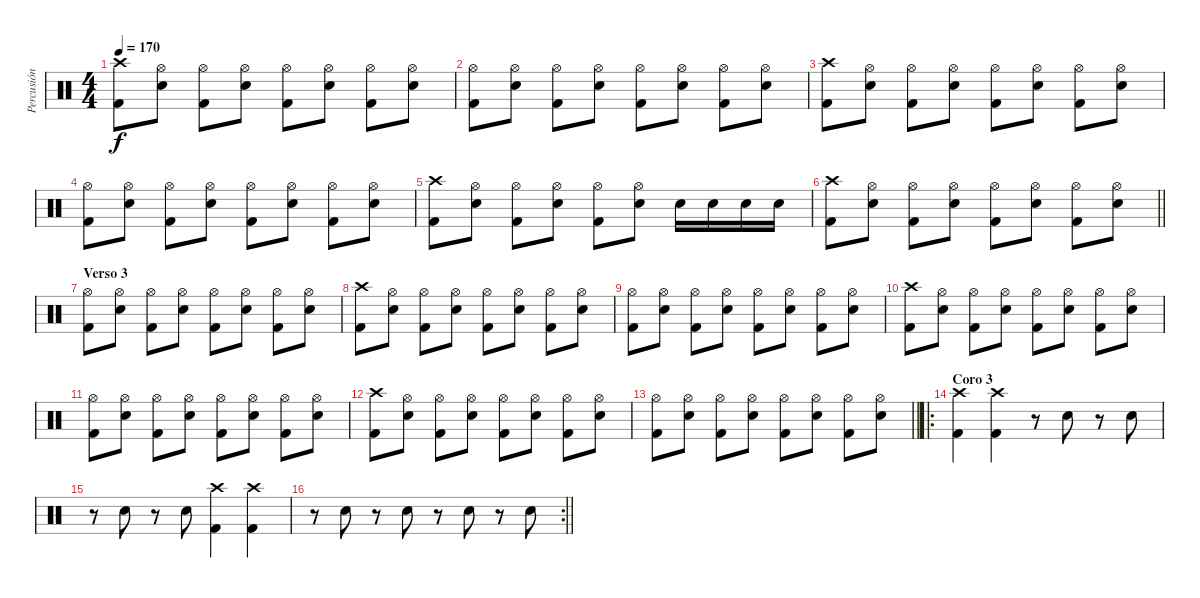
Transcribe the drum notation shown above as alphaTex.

\track ("Percusión" "Percusión") {instrument percussion}
\staff {score}
\articulation defaults
\ts (4 4)
\tempo 170
\clef neutral
\ks c
("Crash high (hit)" "Kick (hit) 2").8{dy f} ("Hi-Hat (open)" "Electric Snare (hit)").8 ("Hi-Hat (open)" "Kick (hit) 2").8 ("Hi-Hat (open)" "Electric Snare (hit)").8 ("Hi-Hat (open)" "Kick (hit) 2").8 ("Hi-Hat (open)" "Electric Snare (hit)").8 ("Hi-Hat (open)" "Kick (hit) 2").8 ("Hi-Hat (open)" "Electric Snare (hit)").8 |
("Hi-Hat (open)" "Kick (hit) 2").8 ("Hi-Hat (open)" "Electric Snare (hit)").8 ("Hi-Hat (open)" "Kick (hit) 2").8 ("Hi-Hat (open)" "Electric Snare (hit)").8 ("Hi-Hat (open)" "Kick (hit) 2").8 ("Hi-Hat (open)" "Electric Snare (hit)").8 ("Hi-Hat (open)" "Kick (hit) 2").8 ("Hi-Hat (open)" "Electric Snare (hit)").8 |
("Crash high (hit)" "Kick (hit) 2").8 ("Hi-Hat (open)" "Electric Snare (hit)").8 ("Hi-Hat (open)" "Kick (hit) 2").8 ("Hi-Hat (open)" "Electric Snare (hit)").8 ("Hi-Hat (open)" "Kick (hit) 2").8 ("Hi-Hat (open)" "Electric Snare (hit)").8 ("Hi-Hat (open)" "Kick (hit) 2").8 ("Hi-Hat (open)" "Electric Snare (hit)").8 |
("Hi-Hat (open)" "Kick (hit) 2").8 ("Hi-Hat (open)" "Electric Snare (hit)").8 ("Hi-Hat (open)" "Kick (hit) 2").8 ("Hi-Hat (open)" "Electric Snare (hit)").8 ("Hi-Hat (open)" "Kick (hit) 2").8 ("Hi-Hat (open)" "Electric Snare (hit)").8 ("Hi-Hat (open)" "Kick (hit) 2").8 ("Hi-Hat (open)" "Electric Snare (hit)").8 |
("Crash high (hit)" "Kick (hit) 2").8 ("Hi-Hat (open)" "Electric Snare (hit)").8 ("Hi-Hat (open)" "Kick (hit) 2").8 ("Hi-Hat (open)" "Electric Snare (hit)").8 ("Hi-Hat (open)" "Kick (hit) 2").8 ("Hi-Hat (open)" "Electric Snare (hit)").8 "Electric Snare (hit)".16 "Electric Snare (hit)".16 "Electric Snare (hit)".16 "Electric Snare (hit)".16 |
\barLineRight lightlight
("Crash high (hit)" "Kick (hit) 2").8 ("Hi-Hat (open)" "Electric Snare (hit)").8 ("Hi-Hat (open)" "Kick (hit) 2").8 ("Hi-Hat (open)" "Electric Snare (hit)").8 ("Hi-Hat (open)" "Kick (hit) 2").8 ("Hi-Hat (open)" "Electric Snare (hit)").8 ("Hi-Hat (open)" "Kick (hit) 2").8 ("Hi-Hat (open)" "Electric Snare (hit)").8 |
\section ("" "Verso 3")
("Hi-Hat (open)" "Kick (hit) 2").8 ("Hi-Hat (open)" "Electric Snare (hit)").8 ("Hi-Hat (open)" "Kick (hit) 2").8 ("Hi-Hat (open)" "Electric Snare (hit)").8 ("Hi-Hat (open)" "Kick (hit) 2").8 ("Hi-Hat (open)" "Electric Snare (hit)").8 ("Hi-Hat (open)" "Kick (hit) 2").8 ("Hi-Hat (open)" "Electric Snare (hit)").8 |
("Crash high (hit)" "Kick (hit) 2").8 ("Hi-Hat (open)" "Electric Snare (hit)").8 ("Hi-Hat (open)" "Kick (hit) 2").8 ("Hi-Hat (open)" "Electric Snare (hit)").8 ("Hi-Hat (open)" "Kick (hit) 2").8 ("Hi-Hat (open)" "Electric Snare (hit)").8 ("Hi-Hat (open)" "Kick (hit) 2").8 ("Hi-Hat (open)" "Electric Snare (hit)").8 |
("Hi-Hat (open)" "Kick (hit) 2").8 ("Hi-Hat (open)" "Electric Snare (hit)").8 ("Hi-Hat (open)" "Kick (hit) 2").8 ("Hi-Hat (open)" "Electric Snare (hit)").8 ("Hi-Hat (open)" "Kick (hit) 2").8 ("Hi-Hat (open)" "Electric Snare (hit)").8 ("Hi-Hat (open)" "Kick (hit) 2").8 ("Hi-Hat (open)" "Electric Snare (hit)").8 |
("Crash high (hit)" "Kick (hit) 2").8 ("Hi-Hat (open)" "Electric Snare (hit)").8 ("Hi-Hat (open)" "Kick (hit) 2").8 ("Hi-Hat (open)" "Electric Snare (hit)").8 ("Hi-Hat (open)" "Kick (hit) 2").8 ("Hi-Hat (open)" "Electric Snare (hit)").8 ("Hi-Hat (open)" "Kick (hit) 2").8 ("Hi-Hat (open)" "Electric Snare (hit)").8 |
("Hi-Hat (open)" "Kick (hit) 2").8 ("Hi-Hat (open)" "Electric Snare (hit)").8 ("Hi-Hat (open)" "Kick (hit) 2").8 ("Hi-Hat (open)" "Electric Snare (hit)").8 ("Hi-Hat (open)" "Kick (hit) 2").8 ("Hi-Hat (open)" "Electric Snare (hit)").8 ("Hi-Hat (open)" "Kick (hit) 2").8 ("Hi-Hat (open)" "Electric Snare (hit)").8 |
("Crash high (hit)" "Kick (hit) 2").8 ("Hi-Hat (open)" "Electric Snare (hit)").8 ("Hi-Hat (open)" "Kick (hit) 2").8 ("Hi-Hat (open)" "Electric Snare (hit)").8 ("Hi-Hat (open)" "Kick (hit) 2").8 ("Hi-Hat (open)" "Electric Snare (hit)").8 ("Hi-Hat (open)" "Kick (hit) 2").8 ("Hi-Hat (open)" "Electric Snare (hit)").8 |
\barLineRight lightlight
("Hi-Hat (open)" "Kick (hit) 2").8 ("Hi-Hat (open)" "Electric Snare (hit)").8 ("Hi-Hat (open)" "Kick (hit) 2").8 ("Hi-Hat (open)" "Electric Snare (hit)").8 ("Hi-Hat (open)" "Kick (hit) 2").8 ("Hi-Hat (open)" "Electric Snare (hit)").8 ("Hi-Hat (open)" "Kick (hit) 2").8 ("Hi-Hat (open)" "Electric Snare (hit)").8 |
\ro
\section ("" "Coro 3")
("Crash high (hit)" "Kick (hit) 2").4 ("Crash high (hit)" "Kick (hit) 2").4 r.8 "Electric Snare (hit)".8 r.8 "Electric Snare (hit)".8 |
r.8 "Electric Snare (hit)".8 r.8 "Electric Snare (hit)".8 ("Crash high (hit)" "Kick (hit) 2").4 ("Crash high (hit)" "Kick (hit) 2").4 |
\rc 2
\barLineRight lightlight
r.8 "Electric Snare (hit)".8 r.8 "Electric Snare (hit)".8 r.8 "Electric Snare (hit)".8 r.8 "Electric Snare (hit)".8
